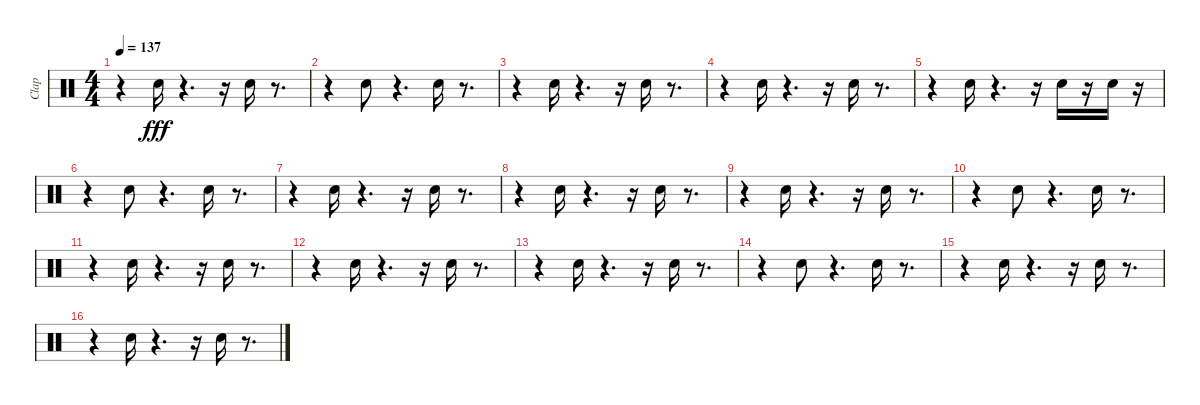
\track ("Clap" "Clap") {instrument percussion}
\staff {score}
\articulation defaults
\ts (4 4)
\tempo 137
\clef neutral
\ks c
r.4{dy fff} "Hand Clap (hit)".16 r.4{d} r.16 "Hand Clap (hit)".16 r.8{d} |
r.4 "Hand Clap (hit)".8 r.4{d} "Hand Clap (hit)".16 r.8{d} |
r.4 "Hand Clap (hit)".16 r.4{d} r.16 "Hand Clap (hit)".16 r.8{d} |
r.4 "Hand Clap (hit)".16 r.4{d} r.16 "Hand Clap (hit)".16 r.8{d} |
r.4 "Hand Clap (hit)".16 r.4{d} r.16 "Hand Clap (hit)".16 r.16 "Hand Clap (hit)".16 r.16 |
r.4 "Hand Clap (hit)".8 r.4{d} "Hand Clap (hit)".16 r.8{d} |
r.4 "Hand Clap (hit)".16 r.4{d} r.16 "Hand Clap (hit)".16 r.8{d} |
r.4 "Hand Clap (hit)".16 r.4{d} r.16 "Hand Clap (hit)".16 r.8{d} |
r.4 "Hand Clap (hit)".16 r.4{d} r.16 "Hand Clap (hit)".16 r.8{d} |
r.4 "Hand Clap (hit)".8 r.4{d} "Hand Clap (hit)".16 r.8{d} |
r.4 "Hand Clap (hit)".16 r.4{d} r.16 "Hand Clap (hit)".16 r.8{d} |
r.4 "Hand Clap (hit)".16 r.4{d} r.16 "Hand Clap (hit)".16 r.8{d} |
r.4 "Hand Clap (hit)".16 r.4{d} r.16 "Hand Clap (hit)".16 r.8{d} |
r.4 "Hand Clap (hit)".8 r.4{d} "Hand Clap (hit)".16 r.8{d} |
r.4 "Hand Clap (hit)".16 r.4{d} r.16 "Hand Clap (hit)".16 r.8{d} |
r.4 "Hand Clap (hit)".16 r.4{d} r.16 "Hand Clap (hit)".16 r.8{d}
